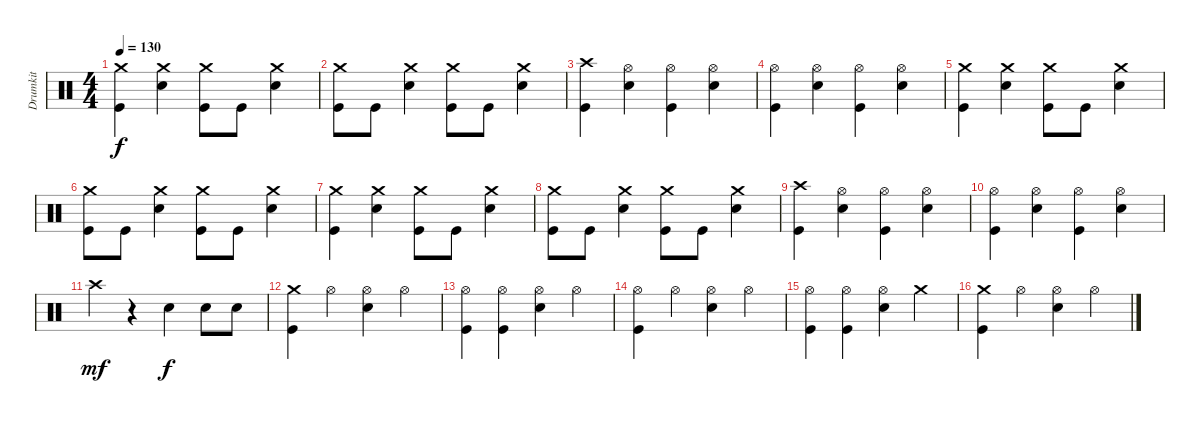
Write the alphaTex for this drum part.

\track ("Drumkit" "Drumkit") {instrument percussion}
\staff {score}
\articulation defaults
\ts (4 4)
\tempo 130
\clef neutral
\ks c
("Crash medium (hit)" "Kick (hit)").4{dy f} ("Crash medium (hit)" "Snare (hit) 2").4 ("Crash medium (hit)" "Kick (hit)").8 "Kick (hit)".8 ("Crash medium (hit)" "Snare (hit) 2").4 |
("Crash medium (hit)" "Kick (hit)").8 "Kick (hit)".8 ("Crash medium (hit)" "Snare (hit) 2").4 ("Crash medium (hit)" "Kick (hit)").8 "Kick (hit)".8 ("Crash medium (hit)" "Snare (hit) 2").4 |
("Crash high (hit)" "Kick (hit)").4 ("Hi-Hat (open)" "Snare (hit) 2").4 ("Hi-Hat (open)" "Kick (hit)").4 ("Hi-Hat (open)" "Snare (hit) 2").4 |
("Hi-Hat (open)" "Kick (hit)").4 ("Hi-Hat (open)" "Snare (hit) 2").4 ("Hi-Hat (open)" "Kick (hit)").4 ("Hi-Hat (open)" "Snare (hit) 2").4 |
("Crash medium (hit)" "Kick (hit)").4 ("Crash medium (hit)" "Snare (hit) 2").4 ("Crash medium (hit)" "Kick (hit)").8 "Kick (hit)".8 ("Crash medium (hit)" "Snare (hit) 2").4 |
("Crash medium (hit)" "Kick (hit)").8 "Kick (hit)".8 ("Crash medium (hit)" "Snare (hit) 2").4 ("Crash medium (hit)" "Kick (hit)").8 "Kick (hit)".8 ("Crash medium (hit)" "Snare (hit) 2").4 |
("Crash medium (hit)" "Kick (hit)").4 ("Crash medium (hit)" "Snare (hit) 2").4 ("Crash medium (hit)" "Kick (hit)").8 "Kick (hit)".8 ("Crash medium (hit)" "Snare (hit) 2").4 |
("Crash medium (hit)" "Kick (hit)").8 "Kick (hit)".8 ("Crash medium (hit)" "Snare (hit) 2").4 ("Crash medium (hit)" "Kick (hit)").8 "Kick (hit)".8 ("Crash medium (hit)" "Snare (hit) 2").4 |
("Crash high (hit)" "Kick (hit)").4 ("Hi-Hat (open)" "Snare (hit) 2").4 ("Hi-Hat (open)" "Kick (hit)").4 ("Hi-Hat (open)" "Snare (hit) 2").4 |
("Hi-Hat (open)" "Kick (hit)").4 ("Hi-Hat (open)" "Snare (hit) 2").4 ("Hi-Hat (open)" "Kick (hit)").4 ("Hi-Hat (open)" "Snare (hit) 2").4 |
"Crash high (hit)".4{dy mf} r.4 "Snare (hit) 2".4{dy f} "Snare (hit) 2".8 "Snare (hit) 2".8 |
("Crash medium (hit)" "Kick (hit)").4 "Hi-Hat (open)".4 ("Hi-Hat (open)" "Snare (hit) 2").4 "Hi-Hat (open)".4 |
("Hi-Hat (open)" "Kick (hit)").4 ("Hi-Hat (open)" "Kick (hit)").4 ("Hi-Hat (open)" "Snare (hit) 2").4 "Hi-Hat (open)".4 |
("Hi-Hat (open)" "Kick (hit)").4 "Hi-Hat (open)".4 ("Hi-Hat (open)" "Snare (hit) 2").4 "Hi-Hat (open)".4 |
("Hi-Hat (open)" "Kick (hit)").4 ("Hi-Hat (open)" "Kick (hit)").4 ("Hi-Hat (open)" "Snare (hit) 2").4 "Crash medium (hit)".4 |
("Crash medium (hit)" "Kick (hit)").4 "Hi-Hat (open)".4 ("Hi-Hat (open)" "Snare (hit) 2").4 "Hi-Hat (open)".4
